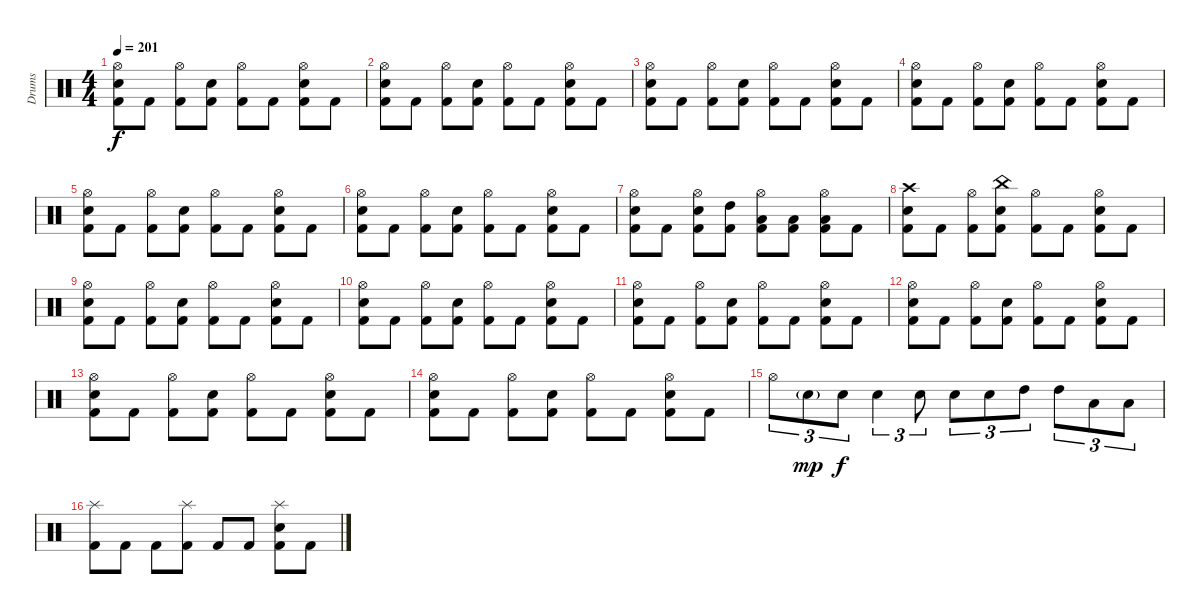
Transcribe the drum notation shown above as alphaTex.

\track ("Drums" "Drums") {instrument percussion}
\staff {score}
\articulation defaults
\ts (4 4)
\tempo 201
\clef neutral
\ks c
("Hi-Hat (open)" "Snare (hit) 2" "Kick (hit) 2").8{dy f} "Kick (hit) 2".8 ("Hi-Hat (open)" "Kick (hit) 2").8 ("Snare (hit) 2" "Kick (hit) 2").8 ("Hi-Hat (open)" "Kick (hit) 2").8 "Kick (hit) 2".8 ("Hi-Hat (open)" "Snare (hit) 2" "Kick (hit) 2").8 "Kick (hit) 2".8 |
("Hi-Hat (open)" "Snare (hit) 2" "Kick (hit) 2").8 "Kick (hit) 2".8 ("Hi-Hat (open)" "Kick (hit) 2").8 ("Snare (hit) 2" "Kick (hit) 2").8 ("Hi-Hat (open)" "Kick (hit) 2").8 "Kick (hit) 2".8 ("Hi-Hat (open)" "Snare (hit) 2" "Kick (hit) 2").8 "Kick (hit) 2".8 |
("Hi-Hat (open)" "Snare (hit) 2" "Kick (hit) 2").8 "Kick (hit) 2".8 ("Hi-Hat (open)" "Kick (hit) 2").8 ("Snare (hit) 2" "Kick (hit) 2").8 ("Hi-Hat (open)" "Kick (hit) 2").8 "Kick (hit) 2".8 ("Hi-Hat (open)" "Snare (hit) 2" "Kick (hit) 2").8 "Kick (hit) 2".8 |
("Hi-Hat (open)" "Snare (hit) 2" "Kick (hit) 2").8 "Kick (hit) 2".8 ("Hi-Hat (open)" "Kick (hit) 2").8 ("Snare (hit) 2" "Kick (hit) 2").8 ("Hi-Hat (open)" "Kick (hit) 2").8 "Kick (hit) 2".8 ("Hi-Hat (open)" "Snare (hit) 2" "Kick (hit) 2").8 "Kick (hit) 2".8 |
("Hi-Hat (open)" "Snare (hit) 2" "Kick (hit) 2").8 "Kick (hit) 2".8 ("Hi-Hat (open)" "Kick (hit) 2").8 ("Snare (hit) 2" "Kick (hit) 2").8 ("Hi-Hat (open)" "Kick (hit) 2").8 "Kick (hit) 2".8 ("Hi-Hat (open)" "Snare (hit) 2" "Kick (hit) 2").8 "Kick (hit) 2".8 |
("Hi-Hat (open)" "Snare (hit) 2" "Kick (hit) 2").8 "Kick (hit) 2".8 ("Hi-Hat (open)" "Kick (hit) 2").8 ("Snare (hit) 2" "Kick (hit) 2").8 ("Hi-Hat (open)" "Kick (hit) 2").8 "Kick (hit) 2".8 ("Hi-Hat (open)" "Snare (hit) 2" "Kick (hit) 2").8 "Kick (hit) 2".8 |
("Hi-Hat (open)" "Snare (hit) 2" "Kick (hit) 2").8 "Kick (hit) 2".8 ("Hi-Hat (open)" "Snare (hit) 2" "Kick (hit) 2").8 ("High Tom (hit)" "Kick (hit) 2").8 ("Hi-Hat (open)" "Low Tom (hit)" "Kick (hit) 2").8 ("Low Tom (hit)" "Kick (hit) 2").8 ("Hi-Hat (open)" "Low Tom (hit)" "Kick (hit) 2").8 "Kick (hit) 2".8 |
("Crash high (hit)" "Snare (hit) 2" "Kick (hit) 2").8 "Kick (hit) 2".8 ("Hi-Hat (open)" "Kick (hit) 2").8 ("China (hit)" "Snare (hit) 2" "Kick (hit) 2").8 ("Hi-Hat (open)" "Kick (hit) 2").8 "Kick (hit) 2".8 ("Hi-Hat (open)" "Snare (hit) 2" "Kick (hit) 2").8 "Kick (hit) 2".8 |
("Hi-Hat (open)" "Snare (hit) 2" "Kick (hit) 2").8 "Kick (hit) 2".8 ("Hi-Hat (open)" "Kick (hit) 2").8 ("Snare (hit) 2" "Kick (hit) 2").8 ("Hi-Hat (open)" "Kick (hit) 2").8 "Kick (hit) 2".8 ("Hi-Hat (open)" "Snare (hit) 2" "Kick (hit) 2").8 "Kick (hit) 2".8 |
("Hi-Hat (open)" "Snare (hit) 2" "Kick (hit) 2").8 "Kick (hit) 2".8 ("Hi-Hat (open)" "Kick (hit) 2").8 ("Snare (hit) 2" "Kick (hit) 2").8 ("Hi-Hat (open)" "Kick (hit) 2").8 "Kick (hit) 2".8 ("Hi-Hat (open)" "Snare (hit) 2" "Kick (hit) 2").8 "Kick (hit) 2".8 |
("Hi-Hat (open)" "Snare (hit) 2" "Kick (hit) 2").8 "Kick (hit) 2".8 ("Hi-Hat (open)" "Kick (hit) 2").8 ("Snare (hit) 2" "Kick (hit) 2").8 ("Hi-Hat (open)" "Kick (hit) 2").8 "Kick (hit) 2".8 ("Hi-Hat (open)" "Snare (hit) 2" "Kick (hit) 2").8 "Kick (hit) 2".8 |
("Hi-Hat (open)" "Snare (hit) 2" "Kick (hit) 2").8 "Kick (hit) 2".8 ("Hi-Hat (open)" "Kick (hit) 2").8 ("Snare (hit) 2" "Kick (hit) 2").8 ("Hi-Hat (open)" "Kick (hit) 2").8 "Kick (hit) 2".8 ("Hi-Hat (open)" "Snare (hit) 2" "Kick (hit) 2").8 "Kick (hit) 2".8 |
("Hi-Hat (open)" "Snare (hit) 2" "Kick (hit) 2").8 "Kick (hit) 2".8 ("Hi-Hat (open)" "Kick (hit) 2").8 ("Snare (hit) 2" "Kick (hit) 2").8 ("Hi-Hat (open)" "Kick (hit) 2").8 "Kick (hit) 2".8 ("Hi-Hat (open)" "Snare (hit) 2" "Kick (hit) 2").8 "Kick (hit) 2".8 |
("Hi-Hat (open)" "Snare (hit) 2" "Kick (hit) 2").8 "Kick (hit) 2".8 ("Hi-Hat (open)" "Kick (hit) 2").8 ("Snare (hit) 2" "Kick (hit) 2").8 ("Hi-Hat (open)" "Kick (hit) 2").8 "Kick (hit) 2".8 ("Hi-Hat (open)" "Snare (hit) 2" "Kick (hit) 2").8 "Kick (hit) 2".8 |
"Hi-Hat (open)".8{tu (3 2)} "Snare (hit) 2"{g}.8{tu (3 2) dy mp} "Snare (hit) 2".8{tu (3 2) dy f} "Snare (hit) 2".4{tu (3 2)} "Snare (hit) 2".8{tu (3 2)} "Snare (hit) 2".8{tu (3 2)} "Snare (hit) 2".8{tu (3 2)} "High Tom (hit)".8{tu (3 2)} "High Tom (hit)".8{tu (3 2)} "Low Tom (hit)".8{tu (3 2)} "Low Tom (hit)".8{tu (3 2)} |
("Splash (hit)" "Kick (hit) 2").8 "Kick (hit) 2".8 "Kick (hit) 2".8 ("Splash (hit)" "Kick (hit) 2").8 "Kick (hit) 2".8 "Kick (hit) 2".8 ("Splash (hit)" "Snare (hit) 2" "Kick (hit) 2").8 "Kick (hit) 2".8
